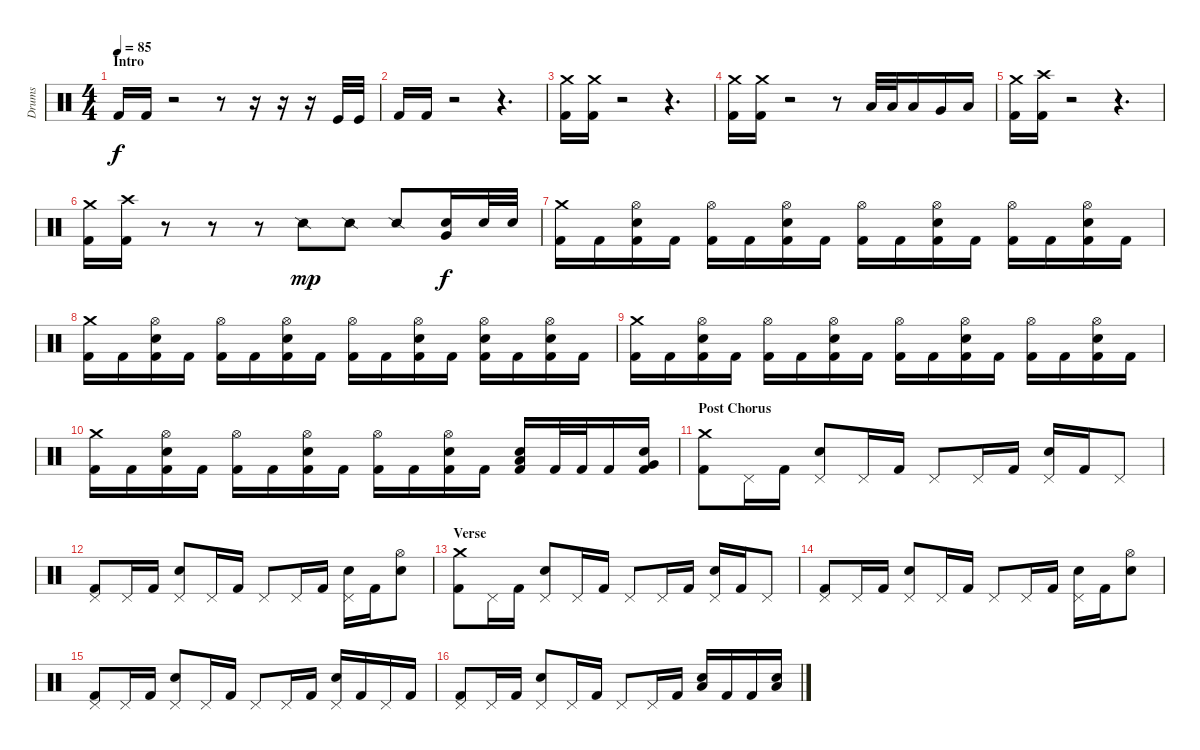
\track ("Drums" "Drums") {instrument percussion}
\staff {score}
\articulation defaults
\ts (4 4)
\section ("" "Intro")
\tempo 85
\clef neutral
\ks c "Kick (hit) 2".16{dy f} "Kick (hit) 2".16
r.2 r.8 r.16 r.16 r.16 "Kick (hit)".32 "Kick (hit)".32 |
"Kick (hit) 2".16 "Kick (hit) 2".16 r.2 r.4{d} |
("Crash medium (hit)" "Kick (hit) 2").16 ("Crash medium (hit)" "Kick (hit) 2").16 r.2 r.4{d} |
("Crash medium (hit)" "Kick (hit) 2").16 ("Crash medium (hit)" "Kick (hit) 2").16 r.2 r.8 "Low Tom (hit)".32 "Low Tom (hit)".32 "Low Tom (hit)".16 "Very Low Tom (hit)".16 "Low Floor Tom (hit)".16 |
("Crash medium (hit)" "Kick (hit) 2").16 ("Crash high (hit)" "Kick (hit) 2").16 r.2 r.4{d} |
("Crash medium (hit)" "Kick (hit) 2").16 ("Crash high (hit)" "Kick (hit) 2").16 r.8 r.8 r.8 "Snare (side stick) 2".8{dy mp} "Snare (side stick) 2".8 "Snare (side stick) 2".8 ("Electric Snare (hit)" "Very Low Tom (hit)").16{dy f} "Electric Snare (hit)".32 "Electric Snare (hit)".32 |
("Crash medium (hit)" "Kick (hit) 2").16 "Kick (hit) 2".16 ("Hi-Hat (open)" "Electric Snare (hit)" "Kick (hit) 2").16 "Kick (hit) 2".16 ("Hi-Hat (open)" "Kick (hit) 2").16 "Kick (hit) 2".16 ("Hi-Hat (open)" "Electric Snare (hit)" "Kick (hit) 2").16 "Kick (hit) 2".16 ("Hi-Hat (open)" "Kick (hit) 2").16 "Kick (hit) 2".16 ("Hi-Hat (open)" "Electric Snare (hit)" "Kick (hit) 2").16 "Kick (hit) 2".16 ("Hi-Hat (open)" "Kick (hit) 2").16 "Kick (hit) 2".16 ("Hi-Hat (open)" "Electric Snare (hit)" "Kick (hit) 2").16 "Kick (hit) 2".16 |
("Crash medium (hit)" "Kick (hit) 2").16 "Kick (hit) 2".16 ("Hi-Hat (open)" "Electric Snare (hit)" "Kick (hit) 2").16 "Kick (hit) 2".16 ("Hi-Hat (open)" "Kick (hit) 2").16 "Kick (hit) 2".16 ("Hi-Hat (open)" "Electric Snare (hit)" "Kick (hit) 2").16 "Kick (hit) 2".16 ("Hi-Hat (open)" "Kick (hit) 2").16 "Kick (hit) 2".16 ("Hi-Hat (open)" "Electric Snare (hit)" "Kick (hit) 2").16 "Kick (hit) 2".16 ("Hi-Hat (open)" "Electric Snare (hit)" "Kick (hit) 2").16 "Kick (hit) 2".16 ("Hi-Hat (open)" "Electric Snare (hit)" "Kick (hit) 2").16 "Kick (hit) 2".16 |
("Crash medium (hit)" "Kick (hit) 2").16 "Kick (hit) 2".16 ("Hi-Hat (open)" "Electric Snare (hit)" "Kick (hit) 2").16 "Kick (hit) 2".16 ("Hi-Hat (open)" "Kick (hit) 2").16 "Kick (hit) 2".16 ("Hi-Hat (open)" "Electric Snare (hit)" "Kick (hit) 2").16 "Kick (hit) 2".16 ("Hi-Hat (open)" "Kick (hit) 2").16 "Kick (hit) 2".16 ("Hi-Hat (open)" "Electric Snare (hit)" "Kick (hit) 2").16 "Kick (hit) 2".16 ("Hi-Hat (open)" "Kick (hit) 2").16 "Kick (hit) 2".16 ("Hi-Hat (open)" "Electric Snare (hit)" "Kick (hit) 2").16 "Kick (hit) 2".16 |
("Crash medium (hit)" "Kick (hit) 2").16 "Kick (hit) 2".16 ("Hi-Hat (open)" "Electric Snare (hit)" "Kick (hit) 2").16 "Kick (hit) 2".16 ("Hi-Hat (open)" "Kick (hit) 2").16 "Kick (hit) 2".16 ("Hi-Hat (open)" "Electric Snare (hit)" "Kick (hit) 2").16 "Kick (hit) 2".16 ("Hi-Hat (open)" "Kick (hit) 2").16 "Kick (hit) 2".16 ("Hi-Hat (open)" "Electric Snare (hit)" "Kick (hit) 2").16 "Kick (hit) 2".16 ("Electric Snare (hit)" "Low Tom (hit)" "Kick (hit) 2").16 "Kick (hit) 2".32 "Kick (hit) 2".32 "Kick (hit) 2".16 ("Electric Snare (hit)" "Very Low Tom (hit)" "Kick (hit) 2").16 |
\section ("" "Post Chorus")
("Crash medium (hit)" "Kick (hit) 2").8 "Pedal Hi-Hat (hit)".16 "Kick (hit) 2".16 ("Pedal Hi-Hat (hit)" "Electric Snare (hit)").8 "Pedal Hi-Hat (hit)".16 "Kick (hit) 2".16 "Pedal Hi-Hat (hit)".8 "Pedal Hi-Hat (hit)".16 "Kick (hit) 2".16 ("Pedal Hi-Hat (hit)" "Electric Snare (hit)").16 "Kick (hit) 2".16 "Pedal Hi-Hat (hit)".8 |
("Pedal Hi-Hat (hit)" "Kick (hit) 2").8 "Pedal Hi-Hat (hit)".16 "Kick (hit) 2".16 ("Pedal Hi-Hat (hit)" "Electric Snare (hit)").8 "Pedal Hi-Hat (hit)".16 "Kick (hit) 2".16 "Pedal Hi-Hat (hit)".8 "Pedal Hi-Hat (hit)".16 "Kick (hit) 2".16 ("Pedal Hi-Hat (hit)" "Electric Snare (hit)").16 "Kick (hit) 2".16 ("Hi-Hat (open)" "Electric Snare (hit)").8 |
\section ("" "Verse")
("Crash medium (hit)" "Kick (hit) 2").8 "Pedal Hi-Hat (hit)".16 "Kick (hit) 2".16 ("Pedal Hi-Hat (hit)" "Electric Snare (hit)").8 "Pedal Hi-Hat (hit)".16 "Kick (hit) 2".16 "Pedal Hi-Hat (hit)".8 "Pedal Hi-Hat (hit)".16 "Kick (hit) 2".16 ("Pedal Hi-Hat (hit)" "Electric Snare (hit)").16 "Kick (hit) 2".16 "Pedal Hi-Hat (hit)".8 |
("Pedal Hi-Hat (hit)" "Kick (hit) 2").8 "Pedal Hi-Hat (hit)".16 "Kick (hit) 2".16 ("Pedal Hi-Hat (hit)" "Electric Snare (hit)").8 "Pedal Hi-Hat (hit)".16 "Kick (hit) 2".16 "Pedal Hi-Hat (hit)".8 "Pedal Hi-Hat (hit)".16 "Kick (hit) 2".16 ("Pedal Hi-Hat (hit)" "Electric Snare (hit)").16 "Kick (hit) 2".16 ("Hi-Hat (open)" "Electric Snare (hit)").8 |
("Pedal Hi-Hat (hit)" "Kick (hit) 2").8 "Pedal Hi-Hat (hit)".16 "Kick (hit) 2".16 ("Pedal Hi-Hat (hit)" "Electric Snare (hit)").8 "Pedal Hi-Hat (hit)".16 "Kick (hit) 2".16 "Pedal Hi-Hat (hit)".8 "Pedal Hi-Hat (hit)".16 "Kick (hit) 2".16 ("Pedal Hi-Hat (hit)" "Electric Snare (hit)").16 "Kick (hit) 2".16 "Pedal Hi-Hat (hit)".16 "Kick (hit) 2".16 |
("Pedal Hi-Hat (hit)" "Kick (hit) 2").8 "Pedal Hi-Hat (hit)".16 "Kick (hit) 2".16 ("Pedal Hi-Hat (hit)" "Electric Snare (hit)").8 "Pedal Hi-Hat (hit)".16 "Kick (hit) 2".16 "Pedal Hi-Hat (hit)".8 "Pedal Hi-Hat (hit)".16 "Kick (hit) 2".16 ("Electric Snare (hit)" "Low Tom (hit)").16 "Kick (hit) 2".16 "Kick (hit) 2".16 ("Electric Snare (hit)" "Low Tom (hit)").16
